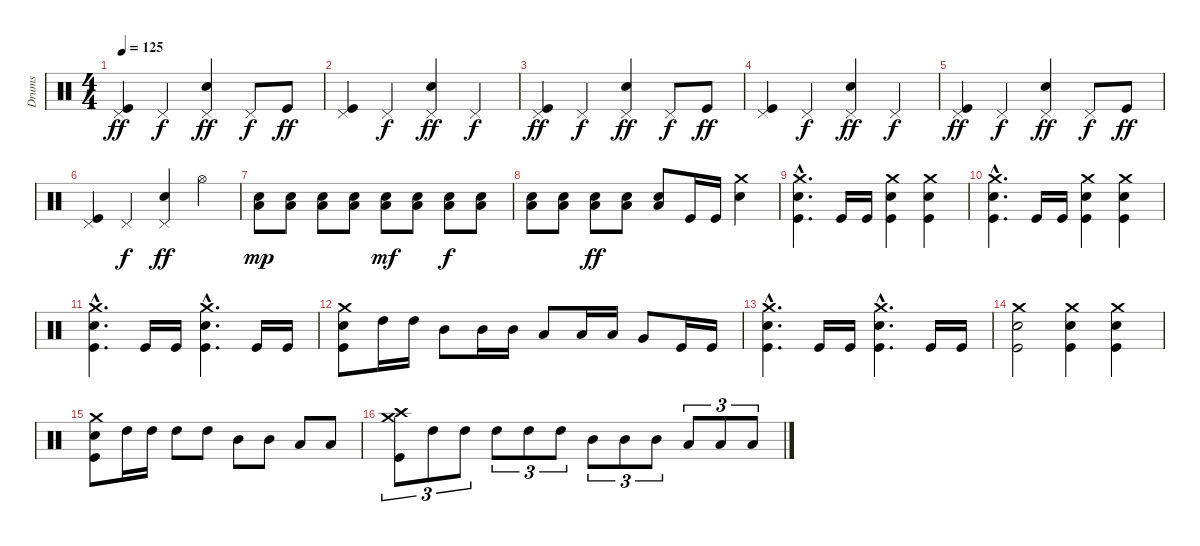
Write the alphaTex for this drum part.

\track ("Drums" "Drums") {instrument percussion}
\staff {score}
\articulation defaults
\ts (4 4)
\tempo 125
\clef neutral
\ks c
("Pedal Hi-Hat (hit)" "Kick (hit)").4{dy ff} "Pedal Hi-Hat (hit)".4{dy f} ("Pedal Hi-Hat (hit)" "Electric Snare (hit)").4{dy ff} "Pedal Hi-Hat (hit)".8{dy f} "Kick (hit)".8{dy ff} |
("Pedal Hi-Hat (hit)" "Kick (hit)").4 "Pedal Hi-Hat (hit)".4{dy f} ("Pedal Hi-Hat (hit)" "Electric Snare (hit)").4{dy ff} "Pedal Hi-Hat (hit)".4{dy f} |
("Pedal Hi-Hat (hit)" "Kick (hit)").4{dy ff} "Pedal Hi-Hat (hit)".4{dy f} ("Pedal Hi-Hat (hit)" "Electric Snare (hit)").4{dy ff} "Pedal Hi-Hat (hit)".8{dy f} "Kick (hit)".8{dy ff} |
("Pedal Hi-Hat (hit)" "Kick (hit)").4 "Pedal Hi-Hat (hit)".4{dy f} ("Pedal Hi-Hat (hit)" "Electric Snare (hit)").4{dy ff} "Pedal Hi-Hat (hit)".4{dy f} |
("Pedal Hi-Hat (hit)" "Kick (hit)").4{dy ff} "Pedal Hi-Hat (hit)".4{dy f} ("Pedal Hi-Hat (hit)" "Electric Snare (hit)").4{dy ff} "Pedal Hi-Hat (hit)".8{dy f} "Kick (hit)".8{dy ff} |
("Pedal Hi-Hat (hit)" "Kick (hit)").4 "Pedal Hi-Hat (hit)".4{dy f} ("Pedal Hi-Hat (hit)" "Electric Snare (hit)").4{dy ff} "Hi-Hat (open)".4 |
("Low Floor Tom (hit)" "Electric Snare (hit)").8{dy mp} ("Low Floor Tom (hit)" "Electric Snare (hit)").8 ("Low Floor Tom (hit)" "Electric Snare (hit)").8 ("Low Floor Tom (hit)" "Electric Snare (hit)").8 ("Low Floor Tom (hit)" "Electric Snare (hit)").8{dy mf} ("Low Floor Tom (hit)" "Electric Snare (hit)").8 ("Low Floor Tom (hit)" "Electric Snare (hit)").8{dy f} ("Low Floor Tom (hit)" "Electric Snare (hit)").8 |
("Low Floor Tom (hit)" "Electric Snare (hit)").8 ("Low Floor Tom (hit)" "Electric Snare (hit)").8 ("Low Floor Tom (hit)" "Electric Snare (hit)").8{dy ff} ("Low Floor Tom (hit)" "Electric Snare (hit)").8 ("Low Floor Tom (hit)" "Electric Snare (hit)").8 "Kick (hit)".16 "Kick (hit)".16 ("Crash medium (hit)" "Electric Snare (hit)").4 |
("Crash medium (hit)"{hac} "Electric Snare (hit)"{hac} "Kick (hit)"{hac}).4{d} "Kick (hit)".16 "Kick (hit)".16 ("Crash medium (hit)" "Electric Snare (hit)" "Kick (hit)").4 ("Crash medium (hit)" "Electric Snare (hit)" "Kick (hit)").4 |
("Crash medium (hit)"{hac} "Electric Snare (hit)"{hac} "Kick (hit)"{hac}).4{d} "Kick (hit)".16 "Kick (hit)".16 ("Crash medium (hit)" "Electric Snare (hit)" "Kick (hit)").4 ("Crash medium (hit)" "Electric Snare (hit)" "Kick (hit)").4 |
("Crash medium (hit)"{hac} "Electric Snare (hit)"{hac} "Kick (hit)"{hac}).4{d} "Kick (hit)".16 "Kick (hit)".16 ("Crash medium (hit)"{hac} "Electric Snare (hit)"{hac} "Kick (hit)"{hac}).4{d} "Kick (hit)".16 "Kick (hit)".16 |
("Crash medium (hit)" "Electric Snare (hit)" "Kick (hit)").8 "High Tom (hit)".16 "High Tom (hit)".16 "Mid Tom (hit)".8 "Mid Tom (hit)".16 "Mid Tom (hit)".16 "Low Tom (hit)".8 "Low Tom (hit)".16 "Low Tom (hit)".16 "Very Low Tom (hit)".8 "Kick (hit)".16 "Kick (hit)".16 |
("Crash medium (hit)"{hac} "Electric Snare (hit)"{hac} "Kick (hit)"{hac}).4{d} "Kick (hit)".16 "Kick (hit)".16 ("Crash medium (hit)"{hac} "Electric Snare (hit)"{hac} "Kick (hit)"{hac}).4{d} "Kick (hit)".16 "Kick (hit)".16 |
("Crash medium (hit)" "Electric Snare (hit)" "Kick (hit)").2 ("Crash medium (hit)" "Electric Snare (hit)" "Kick (hit)").4 ("Crash medium (hit)" "Electric Snare (hit)" "Kick (hit)").4 |
("Crash medium (hit)" "Electric Snare (hit)" "Kick (hit)").8 "High Tom (hit)".16 "High Tom (hit)".16 "High Tom (hit)".8 "High Tom (hit)".8 "Mid Tom (hit)".8 "Mid Tom (hit)".8 "Low Tom (hit)".8 "Low Tom (hit)".8 |
("Crash medium (hit)" "Crash high (hit)" "Kick (hit)").8{tu (3 2)} "High Tom (hit)".8{tu (3 2)} "High Tom (hit)".8{tu (3 2)} "High Tom (hit)".8{tu (3 2)} "High Tom (hit)".8{tu (3 2)} "High Tom (hit)".8{tu (3 2)} "Mid Tom (hit)".8{tu (3 2)} "Mid Tom (hit)".8{tu (3 2)} "Mid Tom (hit)".8{tu (3 2)} "Low Tom (hit)".8{tu (3 2)} "Low Tom (hit)".8{tu (3 2)} "Low Tom (hit)".8{tu (3 2)}
